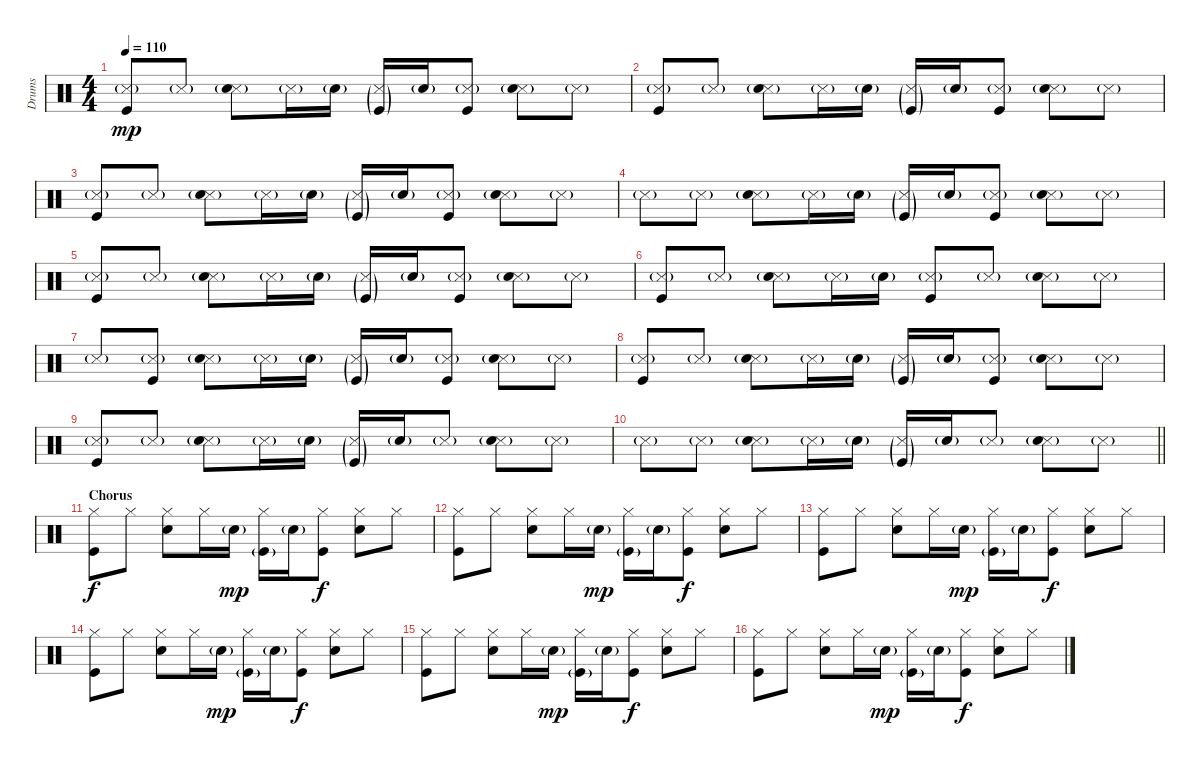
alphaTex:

\track ("Drums" "Drums") {instrument percussion}
\staff {score}
\articulation defaults
\ts (4 4)
\tempo 110
\clef neutral
\ks c
("Snare (side stick) 3"{g} "Kick (hit)").8{dy mp} "Snare (side stick) 3"{g}.8 ("Snare (side stick) 3"{g} "Electric Snare (hit)").8 "Snare (side stick) 3"{g}.16 "Electric Snare (hit)"{g}.16 ("Snare (side stick) 3"{g} "Kick (hit)"{g}).16 "Electric Snare (hit)"{g}.16 ("Snare (side stick) 3"{g} "Kick (hit)").8 ("Snare (side stick) 3"{g} "Electric Snare (hit)").8 "Snare (side stick) 3"{g}.8 |
("Snare (side stick) 3"{g} "Kick (hit)").8 "Snare (side stick) 3"{g}.8 ("Snare (side stick) 3"{g} "Electric Snare (hit)").8 "Snare (side stick) 3"{g}.16 "Electric Snare (hit)"{g}.16 ("Snare (side stick) 3"{g} "Kick (hit)"{g}).16 "Electric Snare (hit)"{g}.16 ("Snare (side stick) 3"{g} "Kick (hit)").8 ("Snare (side stick) 3"{g} "Electric Snare (hit)").8 "Snare (side stick) 3"{g}.8 |
("Snare (side stick) 3"{g} "Kick (hit)").8 "Snare (side stick) 3"{g}.8 ("Snare (side stick) 3"{g} "Electric Snare (hit)").8 "Snare (side stick) 3"{g}.16 "Electric Snare (hit)"{g}.16 ("Snare (side stick) 3"{g} "Kick (hit)"{g}).16 "Electric Snare (hit)"{g}.16 ("Snare (side stick) 3"{g} "Kick (hit)").8 ("Snare (side stick) 3"{g} "Electric Snare (hit)").8 "Snare (side stick) 3"{g}.8 |
"Snare (side stick) 3"{g}.8 "Snare (side stick) 3"{g}.8 ("Snare (side stick) 3"{g} "Electric Snare (hit)").8 "Snare (side stick) 3"{g}.16 "Electric Snare (hit)"{g}.16 ("Snare (side stick) 3"{g} "Kick (hit)"{g}).16 "Electric Snare (hit)"{g}.16 ("Snare (side stick) 3"{g} "Kick (hit)").8 ("Snare (side stick) 3"{g} "Electric Snare (hit)").8 "Snare (side stick) 3"{g}.8 |
("Snare (side stick) 3"{g} "Kick (hit)").8 "Snare (side stick) 3"{g}.8 ("Snare (side stick) 3"{g} "Electric Snare (hit)").8 "Snare (side stick) 3"{g}.16 "Electric Snare (hit)"{g}.16 ("Snare (side stick) 3"{g} "Kick (hit)"{g}).16 "Electric Snare (hit)"{g}.16 ("Snare (side stick) 3"{g} "Kick (hit)").8 ("Snare (side stick) 3"{g} "Electric Snare (hit)").8 "Snare (side stick) 3"{g}.8 |
("Snare (side stick) 3"{g} "Kick (hit)").8 "Snare (side stick) 3"{g}.8 ("Snare (side stick) 3"{g} "Electric Snare (hit)").8 "Snare (side stick) 3"{g}.16 "Electric Snare (hit)"{g}.16 ("Snare (side stick) 3"{g} "Kick (hit)").8 "Snare (side stick) 3"{g}.8 ("Snare (side stick) 3"{g} "Electric Snare (hit)").8 "Snare (side stick) 3"{g}.8 |
"Snare (side stick) 3"{g}.8 ("Snare (side stick) 3"{g} "Kick (hit)").8 ("Snare (side stick) 3"{g} "Electric Snare (hit)").8 "Snare (side stick) 3"{g}.16 "Electric Snare (hit)"{g}.16 ("Snare (side stick) 3"{g} "Kick (hit)"{g}).16 "Electric Snare (hit)"{g}.16 ("Snare (side stick) 3"{g} "Kick (hit)").8 ("Snare (side stick) 3"{g} "Electric Snare (hit)").8 "Snare (side stick) 3"{g}.8 |
("Snare (side stick) 3"{g} "Kick (hit)").8 "Snare (side stick) 3"{g}.8 ("Snare (side stick) 3"{g} "Electric Snare (hit)").8 "Snare (side stick) 3"{g}.16 "Electric Snare (hit)"{g}.16 ("Snare (side stick) 3"{g} "Kick (hit)"{g}).16 "Electric Snare (hit)"{g}.16 ("Snare (side stick) 3"{g} "Kick (hit)").8 ("Snare (side stick) 3"{g} "Electric Snare (hit)").8 "Snare (side stick) 3"{g}.8 |
("Snare (side stick) 3"{g} "Kick (hit)").8 "Snare (side stick) 3"{g}.8 ("Snare (side stick) 3"{g} "Electric Snare (hit)").8 "Snare (side stick) 3"{g}.16 "Electric Snare (hit)"{g}.16 ("Snare (side stick) 3"{g} "Kick (hit)"{g}).16 "Electric Snare (hit)"{g}.16 "Snare (side stick) 3"{g}.8 ("Snare (side stick) 3"{g} "Electric Snare (hit)").8 "Snare (side stick) 3"{g}.8 |
\barLineRight lightlight "Snare (side stick) 3"{g}.8 "Snare (side stick) 3"{g}.8
("Snare (side stick) 3"{g} "Electric Snare (hit)").8 "Snare (side stick) 3"{g}.16 "Electric Snare (hit)"{g}.16 ("Snare (side stick) 3"{g} "Kick (hit)"{g}).16 "Electric Snare (hit)"{g}.16 "Snare (side stick) 3"{g}.8 ("Snare (side stick) 3"{g} "Electric Snare (hit)").8 "Snare (side stick) 3"{g}.8 |
\section ("" "Chorus")
("Hi-Hat (closed)" "Kick (hit)").8{dy f} "Hi-Hat (closed)".8 ("Hi-Hat (closed)" "Electric Snare (hit)").8 "Hi-Hat (closed)".16 "Electric Snare (hit)"{g}.16{dy mp} ("Hi-Hat (closed)" "Kick (hit)"{g}).16 "Electric Snare (hit)"{g}.16 ("Hi-Hat (closed)" "Kick (hit)").8{dy f} ("Hi-Hat (closed)" "Electric Snare (hit)").8 "Hi-Hat (closed)".8 |
("Hi-Hat (closed)" "Kick (hit)").8 "Hi-Hat (closed)".8 ("Hi-Hat (closed)" "Electric Snare (hit)").8 "Hi-Hat (closed)".16 "Electric Snare (hit)"{g}.16{dy mp} ("Hi-Hat (closed)" "Kick (hit)"{g}).16 "Electric Snare (hit)"{g}.16 ("Hi-Hat (closed)" "Kick (hit)").8{dy f} ("Hi-Hat (closed)" "Electric Snare (hit)").8 "Hi-Hat (closed)".8 |
("Hi-Hat (closed)" "Kick (hit)").8 "Hi-Hat (closed)".8 ("Hi-Hat (closed)" "Electric Snare (hit)").8 "Hi-Hat (closed)".16 "Electric Snare (hit)"{g}.16{dy mp} ("Hi-Hat (closed)" "Kick (hit)"{g}).16 "Electric Snare (hit)"{g}.16 ("Hi-Hat (closed)" "Kick (hit)").8{dy f} ("Hi-Hat (closed)" "Electric Snare (hit)").8 "Hi-Hat (closed)".8 |
("Hi-Hat (closed)" "Kick (hit)").8 "Hi-Hat (closed)".8 ("Hi-Hat (closed)" "Electric Snare (hit)").8 "Hi-Hat (closed)".16 "Electric Snare (hit)"{g}.16{dy mp} ("Hi-Hat (closed)" "Kick (hit)"{g}).16 "Electric Snare (hit)"{g}.16 ("Hi-Hat (closed)" "Kick (hit)").8{dy f} ("Hi-Hat (closed)" "Electric Snare (hit)").8 "Hi-Hat (closed)".8 |
("Hi-Hat (closed)" "Kick (hit)").8 "Hi-Hat (closed)".8 ("Hi-Hat (closed)" "Electric Snare (hit)").8 "Hi-Hat (closed)".16 "Electric Snare (hit)"{g}.16{dy mp} ("Hi-Hat (closed)" "Kick (hit)"{g}).16 "Electric Snare (hit)"{g}.16 ("Hi-Hat (closed)" "Kick (hit)").8{dy f} ("Hi-Hat (closed)" "Electric Snare (hit)").8 "Hi-Hat (closed)".8 |
("Hi-Hat (closed)" "Kick (hit)").8 "Hi-Hat (closed)".8 ("Hi-Hat (closed)" "Electric Snare (hit)").8 "Hi-Hat (closed)".16 "Electric Snare (hit)"{g}.16{dy mp} ("Hi-Hat (closed)" "Kick (hit)"{g}).16 "Electric Snare (hit)"{g}.16 ("Hi-Hat (closed)" "Kick (hit)").8{dy f} ("Hi-Hat (closed)" "Electric Snare (hit)").8 "Hi-Hat (closed)".8
